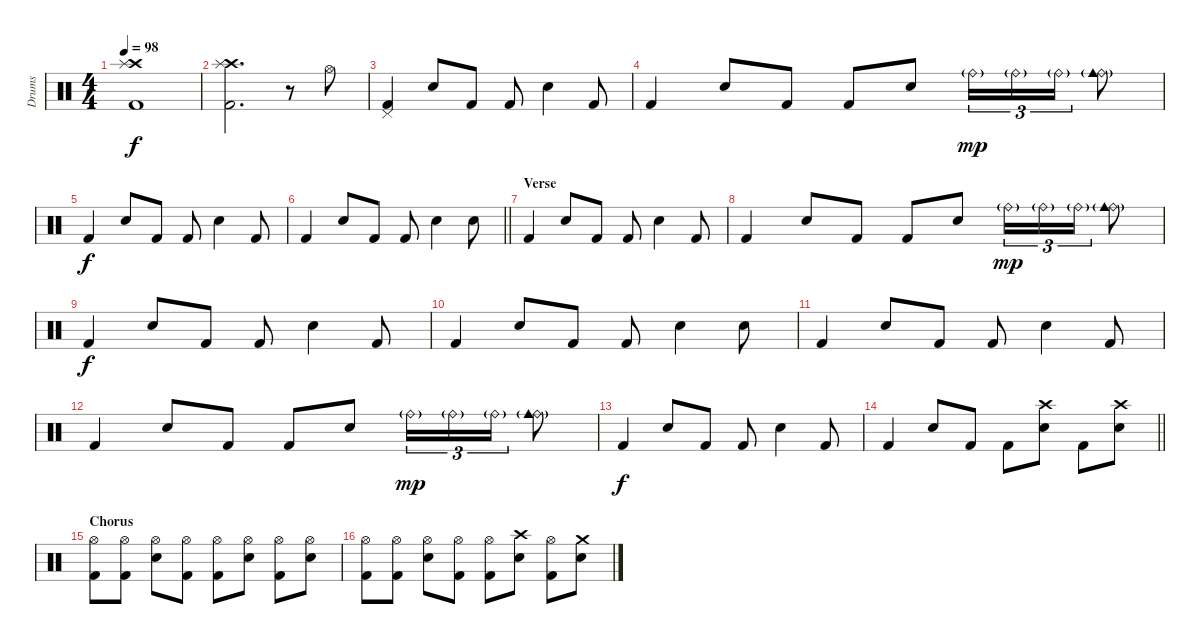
\track ("Drums" "Drums") {instrument percussion}
\staff
\articulation defaults
\ts (4 4)
\tempo 98
\clef neutral
\ks c
("Crash high (hit)" "Splash (hit)" "Kick (hit) 2").1{dy f} |
("Crash high (hit)" "Splash (hit)" "Kick (hit) 2").2{d} r.8 "Hi-Hat (open)".8 |
("Pedal Hi-Hat (hit)" "Kick (hit) 2").4 "Snare (hit) 2".8 "Kick (hit) 2".8 "Kick (hit) 2".8 "Snare (hit) 2".4 "Kick (hit) 2".8 |
"Kick (hit) 2".4 "Snare (hit) 2".8 "Kick (hit) 2".8 "Kick (hit) 2".8 "Snare (hit) 2".8 "Ride (bell)"{g}.16{tu (3 2) dy mp} "Ride (bell)"{g}.16{tu (3 2)} "Ride (bell)"{g}.16{tu (3 2)} ("Ride (bell)"{g} "Cowbell medium (hit)").8 |
"Kick (hit) 2".4{dy f} "Snare (hit) 2".8 "Kick (hit) 2".8 "Kick (hit) 2".8 "Snare (hit) 2".4 "Kick (hit) 2".8 |
\barLineRight lightlight "Kick (hit) 2".4 "Snare (hit) 2".8 "Kick (hit) 2".8 "Kick (hit) 2".8 "Snare (hit) 2".4 "Snare (hit) 2".8
|
\section ("" "Verse")
"Kick (hit) 2".4 "Snare (hit) 2".8 "Kick (hit) 2".8 "Kick (hit) 2".8 "Snare (hit) 2".4 "Kick (hit) 2".8 |
"Kick (hit) 2".4 "Snare (hit) 2".8 "Kick (hit) 2".8 "Kick (hit) 2".8 "Snare (hit) 2".8 "Ride (bell)"{g}.16{tu (3 2) dy mp} "Ride (bell)"{g}.16{tu (3 2)} "Ride (bell)"{g}.16{tu (3 2)} ("Ride (bell)"{g} "Cowbell medium (hit)").8 |
"Kick (hit) 2".4{dy f} "Snare (hit) 2".8 "Kick (hit) 2".8 "Kick (hit) 2".8 "Snare (hit) 2".4 "Kick (hit) 2".8 |
"Kick (hit) 2".4 "Snare (hit) 2".8 "Kick (hit) 2".8 "Kick (hit) 2".8 "Snare (hit) 2".4 "Snare (hit) 2".8 |
"Kick (hit) 2".4 "Snare (hit) 2".8 "Kick (hit) 2".8 "Kick (hit) 2".8 "Snare (hit) 2".4 "Kick (hit) 2".8 |
"Kick (hit) 2".4 "Snare (hit) 2".8 "Kick (hit) 2".8 "Kick (hit) 2".8 "Snare (hit) 2".8 "Ride (bell)"{g}.16{tu (3 2) dy mp} "Ride (bell)"{g}.16{tu (3 2)} "Ride (bell)"{g}.16{tu (3 2)} ("Ride (bell)"{g} "Cowbell medium (hit)").8 |
"Kick (hit) 2".4{dy f} "Snare (hit) 2".8 "Kick (hit) 2".8 "Kick (hit) 2".8 "Snare (hit) 2".4 "Kick (hit) 2".8 |
\barLineRight lightlight "Kick (hit) 2".4 "Snare (hit) 2".8 "Kick (hit) 2".8 "Kick (hit) 2".8
("Crash high (hit)" "Snare (hit) 2").8 "Kick (hit) 2".8 ("Crash high (hit)" "Snare (hit) 2").8 |
\section ("" "Chorus")
("Hi-Hat (open)" "Kick (hit) 2").8 ("Hi-Hat (open)" "Kick (hit) 2").8 ("Hi-Hat (open)" "Snare (hit) 2").8 ("Hi-Hat (open)" "Kick (hit) 2").8 ("Hi-Hat (open)" "Kick (hit) 2").8 ("Hi-Hat (open)" "Snare (hit) 2").8 ("Hi-Hat (open)" "Kick (hit) 2").8 ("Hi-Hat (open)" "Snare (hit) 2").8 |
("Hi-Hat (open)" "Kick (hit) 2").8 ("Hi-Hat (open)" "Kick (hit) 2").8 ("Hi-Hat (open)" "Snare (hit) 2").8 ("Hi-Hat (open)" "Kick (hit) 2").8 ("Hi-Hat (open)" "Kick (hit) 2").8 ("Crash high (hit)" "Snare (hit) 2").8 ("Hi-Hat (open)" "Kick (hit) 2").8 ("Crash medium (hit)" "Snare (hit) 2").8
